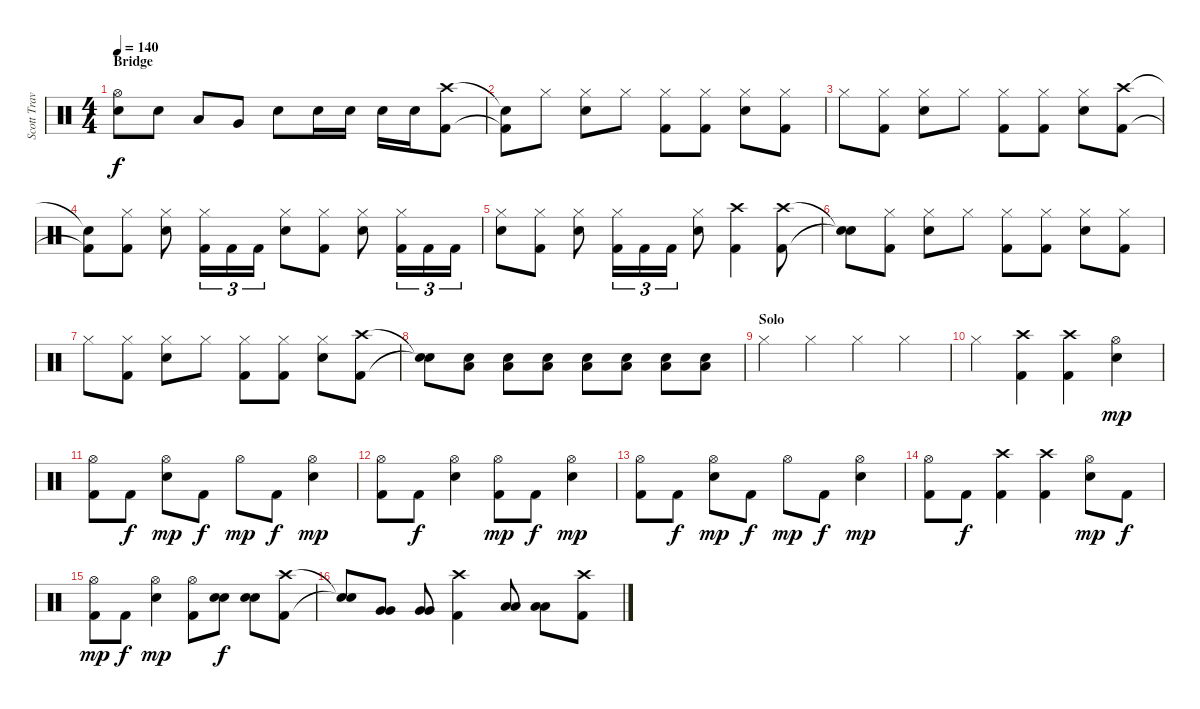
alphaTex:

\track ("Scott Travis" "Scott Trav") {instrument percussion}
\staff {score}
\articulation defaults
\ts (4 4)
\section ("" "Bridge")
\tempo 140
\clef neutral
\ks c
("Hi-Hat (open)"{t} "Snare (hit)"{t}).8{dy f} "Snare (hit) 2".8 "Low Tom (hit)".8 "Very Low Tom (hit)".8 "Snare (hit) 2".8 "Snare (hit) 2".16 "Snare (hit) 2".16 "Snare (hit) 2".16 "Snare (hit) 2".16 ("Crash high (hit)" "Kick (hit) 2").8 |
("Snare (hit)"{t} "Kick (hit) 2"{t}).8 "Hi-Hat (closed)".8 ("Hi-Hat (closed)" "Snare (hit) 2").8 "Hi-Hat (closed)".8 ("Hi-Hat (closed)" "Kick (hit) 2").8 ("Hi-Hat (closed)" "Kick (hit) 2").8 ("Hi-Hat (closed)" "Snare (hit) 2").8 ("Hi-Hat (closed)" "Kick (hit) 2").8 |
"Hi-Hat (closed)".8 ("Hi-Hat (closed)" "Kick (hit) 2").8 ("Hi-Hat (closed)" "Snare (hit) 2").8 "Hi-Hat (closed)".8 ("Hi-Hat (closed)" "Kick (hit) 2").8 ("Hi-Hat (closed)" "Kick (hit) 2").8 ("Hi-Hat (closed)" "Snare (hit) 2").8 ("Crash high (hit)" "Kick (hit) 2").8 |
("Snare (hit)"{t} "Kick (hit) 2"{t}).8 ("Hi-Hat (closed)" "Kick (hit) 2").8 ("Hi-Hat (closed)" "Snare (hit) 2").8 ("Hi-Hat (closed)" "Kick (hit) 2").16{tu (3 2)} "Kick (hit) 2".16{tu (3 2)} "Kick (hit) 2".16{tu (3 2)} ("Hi-Hat (closed)" "Snare (hit) 2").8 ("Hi-Hat (closed)" "Kick (hit) 2").8 ("Hi-Hat (closed)" "Snare (hit) 2").8 ("Hi-Hat (closed)" "Kick (hit) 2").16{tu (3 2)} "Kick (hit) 2".16{tu (3 2)} "Kick (hit) 2".16{tu (3 2)} |
("Hi-Hat (closed)" "Snare (hit) 2").8 ("Hi-Hat (closed)" "Kick (hit) 2").8 ("Hi-Hat (closed)" "Snare (hit) 2").8 ("Hi-Hat (closed)" "Kick (hit) 2").16{tu (3 2)} "Kick (hit) 2".16{tu (3 2)} "Kick (hit) 2".16{tu (3 2)} ("Hi-Hat (closed)" "Snare (hit) 2").8 ("Crash high (hit)" "Kick (hit) 2").4 ("Crash high (hit)" "Kick (hit) 2").8 |
("Snare (hit)"{t} "Snare (hit)"{t}).8 ("Hi-Hat (closed)" "Kick (hit) 2").8 ("Hi-Hat (closed)" "Snare (hit) 2").8 "Hi-Hat (closed)".8 ("Hi-Hat (closed)" "Kick (hit) 2").8 ("Hi-Hat (closed)" "Kick (hit) 2").8 ("Hi-Hat (closed)" "Snare (hit) 2").8 ("Hi-Hat (closed)" "Kick (hit) 2").8 |
"Hi-Hat (closed)".8 ("Hi-Hat (closed)" "Kick (hit) 2").8 ("Hi-Hat (closed)" "Snare (hit) 2").8 "Hi-Hat (closed)".8 ("Hi-Hat (closed)" "Kick (hit) 2").8 ("Hi-Hat (closed)" "Kick (hit) 2").8 ("Hi-Hat (closed)" "Snare (hit) 2").8 ("Crash high (hit)" "Kick (hit) 2").8 |
("Snare (hit)"{t} "Snare (hit)"{t}).8 ("Snare (hit) 2" "Low Floor Tom (hit)").8 ("Snare (hit) 2" "Low Floor Tom (hit)").8 ("Snare (hit) 2" "Low Floor Tom (hit)").8 ("Snare (hit) 2" "Low Floor Tom (hit)").8 ("Snare (hit) 2" "Low Floor Tom (hit)").8 ("Snare (hit) 2" "Low Floor Tom (hit)").8 ("Snare (hit) 2" "Low Floor Tom (hit)").8 |
\section ("" "Solo")
"Hi-Hat (closed)".4 "Hi-Hat (closed)".4 "Hi-Hat (closed)".4 "Hi-Hat (closed)".4 |
"Hi-Hat (closed)".4 ("Crash high (hit)" "Kick (hit) 2").4 ("Crash high (hit)" "Kick (hit) 2").4 ("Hi-Hat (open)" "Snare (hit) 2").4{dy mp} |
("Hi-Hat (open)" "Kick (hit) 2").8 "Kick (hit) 2".8{dy f} ("Hi-Hat (open)" "Snare (hit) 2").8{dy mp} "Kick (hit) 2".8{dy f} "Hi-Hat (open)".8{dy mp} "Kick (hit) 2".8{dy f} ("Hi-Hat (open)" "Snare (hit) 2").4{dy mp} |
("Hi-Hat (open)" "Kick (hit) 2").8 "Kick (hit) 2".8{dy f} ("Hi-Hat (open)" "Snare (hit) 2").4 ("Hi-Hat (open)" "Kick (hit) 2").8{dy mp} "Kick (hit) 2".8{dy f} ("Hi-Hat (open)" "Snare (hit) 2").4{dy mp} |
("Hi-Hat (open)" "Kick (hit) 2").8 "Kick (hit) 2".8{dy f} ("Hi-Hat (open)" "Snare (hit) 2").8{dy mp} "Kick (hit) 2".8{dy f} "Hi-Hat (open)".8{dy mp} "Kick (hit) 2".8{dy f} ("Hi-Hat (open)" "Snare (hit) 2").4{dy mp} |
("Hi-Hat (open)" "Kick (hit) 2").8 "Kick (hit) 2".8{dy f} ("Crash high (hit)" "Kick (hit) 2").4 ("Crash high (hit)" "Kick (hit) 2").4 ("Hi-Hat (open)" "Snare (hit) 2").8{dy mp} "Kick (hit) 2".8{dy f} |
("Hi-Hat (open)" "Kick (hit) 2").8{dy mp} "Kick (hit) 2".8{dy f} ("Hi-Hat (open)" "Snare (hit) 2").4{dy mp} ("Hi-Hat (open)" "Kick (hit) 2").8 ("Snare (hit) 2" "Snare (hit) 2").8{dy f} ("Snare (hit) 2" "Snare (hit) 2").8 ("Crash high (hit)" "Kick (hit) 2").8 |
("Snare (hit)"{t} "Snare (hit)"{t}).8 ("Very Low Tom (hit)" "Very Low Tom (hit)").8 ("Very Low Tom (hit)" "Very Low Tom (hit)").8 ("Crash high (hit)" "Kick (hit) 2").4 ("Low Tom (hit)" "Low Tom (hit)").8 ("Low Tom (hit)" "Low Tom (hit)").8 ("Crash high (hit)" "Kick (hit) 2").8
